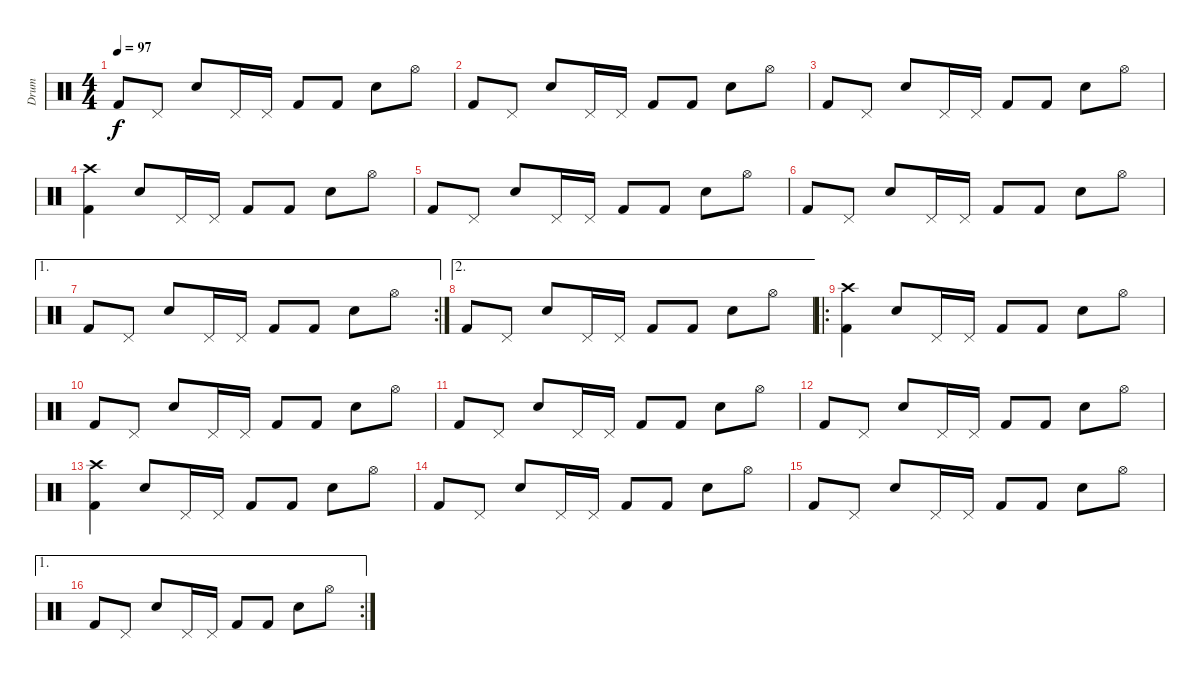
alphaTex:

\track ("Drum" "Drum") {instrument percussion}
\staff {score}
\articulation defaults
\ts (4 4)
\tempo 97
\clef neutral
\ks c "Kick (hit) 2".8{dy f} "Pedal Hi-Hat (hit)".8 "Electric Snare (hit)".8 "Pedal Hi-Hat (hit)".16 "Pedal Hi-Hat (hit)".16 "Kick (hit) 2".8 "Kick (hit) 2".8 "Electric Snare (hit)".8 "Hi-Hat (open)".8
|
"Kick (hit) 2".8 "Pedal Hi-Hat (hit)".8 "Electric Snare (hit)".8 "Pedal Hi-Hat (hit)".16 "Pedal Hi-Hat (hit)".16 "Kick (hit) 2".8 "Kick (hit) 2".8 "Electric Snare (hit)".8 "Hi-Hat (open)".8 |
"Kick (hit) 2".8 "Pedal Hi-Hat (hit)".8 "Electric Snare (hit)".8 "Pedal Hi-Hat (hit)".16 "Pedal Hi-Hat (hit)".16 "Kick (hit) 2".8 "Kick (hit) 2".8 "Electric Snare (hit)".8 "Hi-Hat (open)".8 |
("Crash high (hit)" "Kick (hit) 2").4 "Electric Snare (hit)".8 "Pedal Hi-Hat (hit)".16 "Pedal Hi-Hat (hit)".16 "Kick (hit) 2".8 "Kick (hit) 2".8 "Electric Snare (hit)".8 "Hi-Hat (open)".8 |
"Kick (hit) 2".8 "Pedal Hi-Hat (hit)".8 "Electric Snare (hit)".8 "Pedal Hi-Hat (hit)".16 "Pedal Hi-Hat (hit)".16 "Kick (hit) 2".8 "Kick (hit) 2".8 "Electric Snare (hit)".8 "Hi-Hat (open)".8 |
"Kick (hit) 2".8 "Pedal Hi-Hat (hit)".8 "Electric Snare (hit)".8 "Pedal Hi-Hat (hit)".16 "Pedal Hi-Hat (hit)".16 "Kick (hit) 2".8 "Kick (hit) 2".8 "Electric Snare (hit)".8 "Hi-Hat (open)".8 |
\ae 1
\rc 2 "Kick (hit) 2".8 "Pedal Hi-Hat (hit)".8 "Electric Snare (hit)".8 "Pedal Hi-Hat (hit)".16 "Pedal Hi-Hat (hit)".16 "Kick (hit) 2".8 "Kick (hit) 2".8 "Electric Snare (hit)".8 "Hi-Hat (open)".8
|
\ae 2 "Kick (hit) 2".8 "Pedal Hi-Hat (hit)".8 "Electric Snare (hit)".8 "Pedal Hi-Hat (hit)".16 "Pedal Hi-Hat (hit)".16 "Kick (hit) 2".8 "Kick (hit) 2".8 "Electric Snare (hit)".8 "Hi-Hat (open)".8
|
\ro
("Crash high (hit)" "Kick (hit) 2").4 "Electric Snare (hit)".8 "Pedal Hi-Hat (hit)".16 "Pedal Hi-Hat (hit)".16 "Kick (hit) 2".8 "Kick (hit) 2".8 "Electric Snare (hit)".8 "Hi-Hat (open)".8 |
"Kick (hit) 2".8 "Pedal Hi-Hat (hit)".8 "Electric Snare (hit)".8 "Pedal Hi-Hat (hit)".16 "Pedal Hi-Hat (hit)".16 "Kick (hit) 2".8 "Kick (hit) 2".8 "Electric Snare (hit)".8 "Hi-Hat (open)".8 |
"Kick (hit) 2".8 "Pedal Hi-Hat (hit)".8 "Electric Snare (hit)".8 "Pedal Hi-Hat (hit)".16 "Pedal Hi-Hat (hit)".16 "Kick (hit) 2".8 "Kick (hit) 2".8 "Electric Snare (hit)".8 "Hi-Hat (open)".8 |
"Kick (hit) 2".8 "Pedal Hi-Hat (hit)".8 "Electric Snare (hit)".8 "Pedal Hi-Hat (hit)".16 "Pedal Hi-Hat (hit)".16 "Kick (hit) 2".8 "Kick (hit) 2".8 "Electric Snare (hit)".8 "Hi-Hat (open)".8 |
("Crash high (hit)" "Kick (hit) 2").4 "Electric Snare (hit)".8 "Pedal Hi-Hat (hit)".16 "Pedal Hi-Hat (hit)".16 "Kick (hit) 2".8 "Kick (hit) 2".8 "Electric Snare (hit)".8 "Hi-Hat (open)".8 |
"Kick (hit) 2".8 "Pedal Hi-Hat (hit)".8 "Electric Snare (hit)".8 "Pedal Hi-Hat (hit)".16 "Pedal Hi-Hat (hit)".16 "Kick (hit) 2".8 "Kick (hit) 2".8 "Electric Snare (hit)".8 "Hi-Hat (open)".8 |
"Kick (hit) 2".8 "Pedal Hi-Hat (hit)".8 "Electric Snare (hit)".8 "Pedal Hi-Hat (hit)".16 "Pedal Hi-Hat (hit)".16 "Kick (hit) 2".8 "Kick (hit) 2".8 "Electric Snare (hit)".8 "Hi-Hat (open)".8 |
\ae 1
\rc 2 "Kick (hit) 2".8 "Pedal Hi-Hat (hit)".8 "Electric Snare (hit)".8 "Pedal Hi-Hat (hit)".16 "Pedal Hi-Hat (hit)".16 "Kick (hit) 2".8 "Kick (hit) 2".8 "Electric Snare (hit)".8 "Hi-Hat (open)".8
